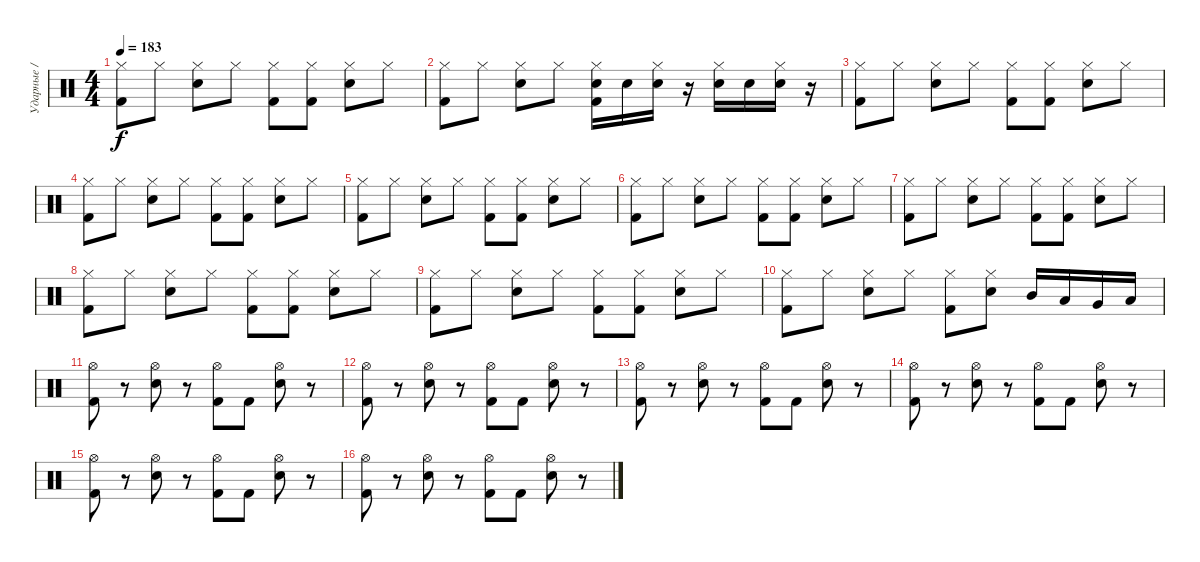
\track ("Ударные / Drums" "Ударные / ") {instrument percussion}
\staff {score}
\articulation defaults
\ts (4 4)
\tempo 183
\clef neutral
\ks c
("Hi-Hat (closed)" "Kick (hit) 2").8{dy f} "Hi-Hat (closed)".8 ("Hi-Hat (closed)" "Snare (hit) 2").8 "Hi-Hat (closed)".8 ("Hi-Hat (closed)" "Kick (hit) 2").8 ("Hi-Hat (closed)" "Kick (hit) 2").8 ("Hi-Hat (closed)" "Snare (hit) 2").8 "Hi-Hat (closed)".8 |
("Hi-Hat (closed)" "Kick (hit) 2").8 "Hi-Hat (closed)".8 ("Hi-Hat (closed)" "Snare (hit) 2").8 "Hi-Hat (closed)".8 ("Hi-Hat (closed)" "Snare (hit) 2" "Kick (hit) 2").16 "Snare (hit) 2".16 ("Hi-Hat (closed)" "Snare (hit) 2").16 r.16 ("Hi-Hat (closed)" "Snare (hit) 2").16 "Snare (hit) 2".16 ("Hi-Hat (closed)" "Snare (hit) 2").16 r.16 |
("Hi-Hat (closed)" "Kick (hit) 2").8 "Hi-Hat (closed)".8 ("Hi-Hat (closed)" "Snare (hit) 2").8 "Hi-Hat (closed)".8 ("Hi-Hat (closed)" "Kick (hit) 2").8 ("Hi-Hat (closed)" "Kick (hit) 2").8 ("Hi-Hat (closed)" "Snare (hit) 2").8 "Hi-Hat (closed)".8 |
("Hi-Hat (closed)" "Kick (hit) 2").8 "Hi-Hat (closed)".8 ("Hi-Hat (closed)" "Snare (hit) 2").8 "Hi-Hat (closed)".8 ("Hi-Hat (closed)" "Kick (hit) 2").8 ("Hi-Hat (closed)" "Kick (hit) 2").8 ("Hi-Hat (closed)" "Snare (hit) 2").8 "Hi-Hat (closed)".8 |
("Hi-Hat (closed)" "Kick (hit) 2").8 "Hi-Hat (closed)".8 ("Hi-Hat (closed)" "Snare (hit) 2").8 "Hi-Hat (closed)".8 ("Hi-Hat (closed)" "Kick (hit) 2").8 ("Hi-Hat (closed)" "Kick (hit) 2").8 ("Hi-Hat (closed)" "Snare (hit) 2").8 "Hi-Hat (closed)".8 |
("Hi-Hat (closed)" "Kick (hit) 2").8 "Hi-Hat (closed)".8 ("Hi-Hat (closed)" "Snare (hit) 2").8 "Hi-Hat (closed)".8 ("Hi-Hat (closed)" "Kick (hit) 2").8 ("Hi-Hat (closed)" "Kick (hit) 2").8 ("Hi-Hat (closed)" "Snare (hit) 2").8 "Hi-Hat (closed)".8 |
("Hi-Hat (closed)" "Kick (hit) 2").8 "Hi-Hat (closed)".8 ("Hi-Hat (closed)" "Snare (hit) 2").8 "Hi-Hat (closed)".8 ("Hi-Hat (closed)" "Kick (hit) 2").8 ("Hi-Hat (closed)" "Kick (hit) 2").8 ("Hi-Hat (closed)" "Snare (hit) 2").8 "Hi-Hat (closed)".8 |
("Hi-Hat (closed)" "Kick (hit) 2").8 "Hi-Hat (closed)".8 ("Hi-Hat (closed)" "Snare (hit) 2").8 "Hi-Hat (closed)".8 ("Hi-Hat (closed)" "Kick (hit) 2").8 ("Hi-Hat (closed)" "Kick (hit) 2").8 ("Hi-Hat (closed)" "Snare (hit) 2").8 "Hi-Hat (closed)".8 |
("Hi-Hat (closed)" "Kick (hit) 2").8 "Hi-Hat (closed)".8 ("Hi-Hat (closed)" "Snare (hit) 2").8 "Hi-Hat (closed)".8 ("Hi-Hat (closed)" "Kick (hit) 2").8 ("Hi-Hat (closed)" "Kick (hit) 2").8 ("Hi-Hat (closed)" "Snare (hit) 2").8 "Hi-Hat (closed)".8 |
("Hi-Hat (closed)" "Kick (hit) 2").8 "Hi-Hat (closed)".8 ("Hi-Hat (closed)" "Snare (hit) 2").8 "Hi-Hat (closed)".8 ("Hi-Hat (closed)" "Kick (hit) 2").8 ("Hi-Hat (closed)" "Snare (hit) 2").8 "Mid Tom (hit)".16 "Low Tom (hit)".16 "Very Low Tom (hit)".16 "Low Floor Tom (hit)".16 |
("Hi-Hat (open)" "Kick (hit) 2").8 r.8 ("Hi-Hat (open)" "Snare (hit) 2").8 r.8 ("Hi-Hat (open)" "Kick (hit) 2").8 "Kick (hit) 2".8 ("Hi-Hat (open)" "Snare (hit) 2").8 r.8 |
("Hi-Hat (open)" "Kick (hit) 2").8 r.8 ("Hi-Hat (open)" "Snare (hit) 2").8 r.8 ("Hi-Hat (open)" "Kick (hit) 2").8 "Kick (hit) 2".8 ("Hi-Hat (open)" "Snare (hit) 2").8 r.8 |
("Hi-Hat (open)" "Kick (hit) 2").8 r.8 ("Hi-Hat (open)" "Snare (hit) 2").8 r.8 ("Hi-Hat (open)" "Kick (hit) 2").8 "Kick (hit) 2".8 ("Hi-Hat (open)" "Snare (hit) 2").8 r.8 |
("Hi-Hat (open)" "Kick (hit) 2").8 r.8 ("Hi-Hat (open)" "Snare (hit) 2").8 r.8 ("Hi-Hat (open)" "Kick (hit) 2").8 "Kick (hit) 2".8 ("Hi-Hat (open)" "Snare (hit) 2").8 r.8 |
("Hi-Hat (open)" "Kick (hit) 2").8 r.8 ("Hi-Hat (open)" "Snare (hit) 2").8 r.8 ("Hi-Hat (open)" "Kick (hit) 2").8 "Kick (hit) 2".8 ("Hi-Hat (open)" "Snare (hit) 2").8 r.8 |
("Hi-Hat (open)" "Kick (hit) 2").8 r.8 ("Hi-Hat (open)" "Snare (hit) 2").8 r.8 ("Hi-Hat (open)" "Kick (hit) 2").8 "Kick (hit) 2".8 ("Hi-Hat (open)" "Snare (hit) 2").8 r.8
